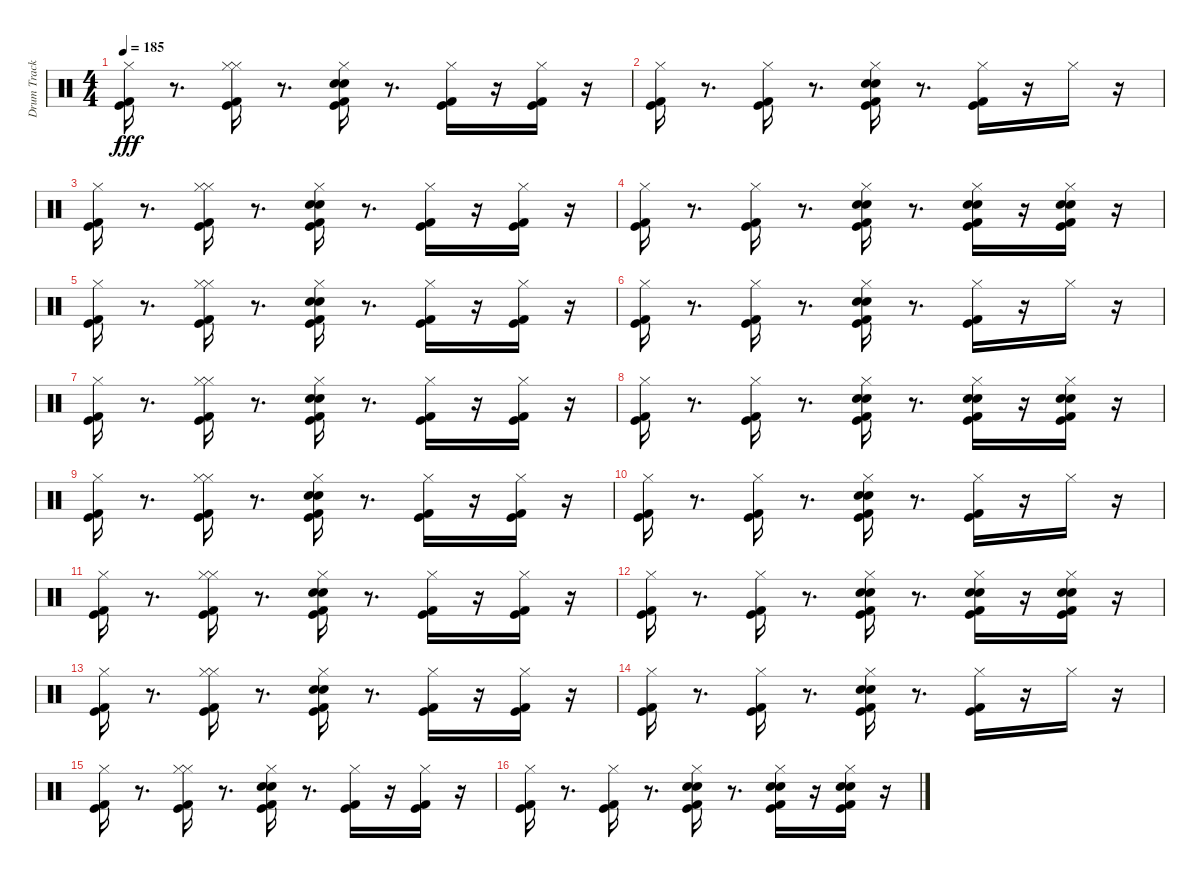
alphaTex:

\track ("Drum Track" "Drum Track") {instrument percussion}
\staff {score}
\articulation defaults
\ts (4 4)
\tempo 185
\clef neutral
\ks c
("Hi-Hat (closed)" "Kick (hit) 2" "Kick (hit)").16{dy fff} r.8{d} ("Hi-Hat (closed)" "Hi-Hat (closed)" "Kick (hit) 2" "Kick (hit)").16 r.8{d} ("Snare (hit) 2" "Electric Snare (hit)" "Kick (hit) 2" "Kick (hit)" "Hi-Hat (closed)").16 r.8{d} ("Kick (hit)" "Kick (hit) 2" "Hi-Hat (closed)").16 r.16 ("Kick (hit) 2" "Kick (hit)" "Hi-Hat (closed)").16 r.16 |
("Hi-Hat (closed)" "Kick (hit) 2" "Kick (hit)").16 r.8{d} ("Hi-Hat (closed)" "Kick (hit)" "Kick (hit) 2").16 r.8{d} ("Hi-Hat (closed)" "Snare (hit) 2" "Electric Snare (hit)" "Kick (hit) 2" "Kick (hit)").16 r.8{d} ("Hi-Hat (closed)" "Kick (hit)" "Kick (hit) 2").16 r.16 "Hi-Hat (closed)".16 r.16 |
("Kick (hit)" "Kick (hit) 2" "Hi-Hat (closed)").16 r.8{d} ("Hi-Hat (closed)" "Hi-Hat (closed)" "Kick (hit) 2" "Kick (hit)").16 r.8{d} ("Snare (hit) 2" "Electric Snare (hit)" "Kick (hit) 2" "Kick (hit)" "Hi-Hat (closed)").16 r.8{d} ("Kick (hit)" "Kick (hit) 2" "Hi-Hat (closed)").16 r.16 ("Kick (hit) 2" "Kick (hit)" "Hi-Hat (closed)").16 r.16 |
("Hi-Hat (closed)" "Kick (hit) 2" "Kick (hit)").16 r.8{d} ("Hi-Hat (closed)" "Kick (hit)" "Kick (hit) 2").16 r.8{d} ("Hi-Hat (closed)" "Snare (hit) 2" "Electric Snare (hit)" "Kick (hit) 2" "Kick (hit)").16 r.8{d} ("Hi-Hat (closed)" "Snare (hit) 2" "Electric Snare (hit)" "Kick (hit)" "Kick (hit) 2").16 r.16 ("Hi-Hat (closed)" "Electric Snare (hit)" "Snare (hit) 2" "Kick (hit) 2" "Kick (hit)").16 r.16 |
("Hi-Hat (closed)" "Kick (hit) 2" "Kick (hit)").16 r.8{d} ("Hi-Hat (closed)" "Hi-Hat (closed)" "Kick (hit) 2" "Kick (hit)").16 r.8{d} ("Snare (hit) 2" "Electric Snare (hit)" "Kick (hit) 2" "Kick (hit)" "Hi-Hat (closed)").16 r.8{d} ("Kick (hit)" "Kick (hit) 2" "Hi-Hat (closed)").16 r.16 ("Kick (hit) 2" "Kick (hit)" "Hi-Hat (closed)").16 r.16 |
("Hi-Hat (closed)" "Kick (hit) 2" "Kick (hit)").16 r.8{d} ("Hi-Hat (closed)" "Kick (hit)" "Kick (hit) 2").16 r.8{d} ("Hi-Hat (closed)" "Snare (hit) 2" "Electric Snare (hit)" "Kick (hit) 2" "Kick (hit)").16 r.8{d} ("Hi-Hat (closed)" "Kick (hit)" "Kick (hit) 2").16 r.16 "Hi-Hat (closed)".16 r.16 |
("Kick (hit)" "Kick (hit) 2" "Hi-Hat (closed)").16 r.8{d} ("Hi-Hat (closed)" "Hi-Hat (closed)" "Kick (hit) 2" "Kick (hit)").16 r.8{d} ("Snare (hit) 2" "Electric Snare (hit)" "Kick (hit) 2" "Kick (hit)" "Hi-Hat (closed)").16 r.8{d} ("Kick (hit)" "Kick (hit) 2" "Hi-Hat (closed)").16 r.16 ("Kick (hit) 2" "Kick (hit)" "Hi-Hat (closed)").16 r.16 |
("Hi-Hat (closed)" "Kick (hit) 2" "Kick (hit)").16 r.8{d} ("Hi-Hat (closed)" "Kick (hit)" "Kick (hit) 2").16 r.8{d} ("Hi-Hat (closed)" "Snare (hit) 2" "Electric Snare (hit)" "Kick (hit) 2" "Kick (hit)").16 r.8{d} ("Hi-Hat (closed)" "Snare (hit) 2" "Electric Snare (hit)" "Kick (hit)" "Kick (hit) 2").16 r.16 ("Hi-Hat (closed)" "Electric Snare (hit)" "Snare (hit) 2" "Kick (hit) 2" "Kick (hit)").16 r.16 |
("Hi-Hat (closed)" "Kick (hit) 2" "Kick (hit)").16 r.8{d} ("Hi-Hat (closed)" "Hi-Hat (closed)" "Kick (hit) 2" "Kick (hit)").16 r.8{d} ("Snare (hit) 2" "Electric Snare (hit)" "Kick (hit) 2" "Kick (hit)" "Hi-Hat (closed)").16 r.8{d} ("Kick (hit)" "Kick (hit) 2" "Hi-Hat (closed)").16 r.16 ("Kick (hit) 2" "Kick (hit)" "Hi-Hat (closed)").16 r.16 |
("Hi-Hat (closed)" "Kick (hit) 2" "Kick (hit)").16 r.8{d} ("Hi-Hat (closed)" "Kick (hit)" "Kick (hit) 2").16 r.8{d} ("Hi-Hat (closed)" "Snare (hit) 2" "Electric Snare (hit)" "Kick (hit) 2" "Kick (hit)").16 r.8{d} ("Hi-Hat (closed)" "Kick (hit)" "Kick (hit) 2").16 r.16 "Hi-Hat (closed)".16 r.16 |
("Kick (hit)" "Kick (hit) 2" "Hi-Hat (closed)").16 r.8{d} ("Hi-Hat (closed)" "Hi-Hat (closed)" "Kick (hit) 2" "Kick (hit)").16 r.8{d} ("Snare (hit) 2" "Electric Snare (hit)" "Kick (hit) 2" "Kick (hit)" "Hi-Hat (closed)").16 r.8{d} ("Kick (hit)" "Kick (hit) 2" "Hi-Hat (closed)").16 r.16 ("Kick (hit) 2" "Kick (hit)" "Hi-Hat (closed)").16 r.16 |
("Hi-Hat (closed)" "Kick (hit) 2" "Kick (hit)").16 r.8{d} ("Hi-Hat (closed)" "Kick (hit)" "Kick (hit) 2").16 r.8{d} ("Hi-Hat (closed)" "Snare (hit) 2" "Electric Snare (hit)" "Kick (hit) 2" "Kick (hit)").16 r.8{d} ("Hi-Hat (closed)" "Snare (hit) 2" "Electric Snare (hit)" "Kick (hit)" "Kick (hit) 2").16 r.16 ("Hi-Hat (closed)" "Electric Snare (hit)" "Snare (hit) 2" "Kick (hit) 2" "Kick (hit)").16 r.16 |
("Hi-Hat (closed)" "Kick (hit) 2" "Kick (hit)").16 r.8{d} ("Hi-Hat (closed)" "Hi-Hat (closed)" "Kick (hit) 2" "Kick (hit)").16 r.8{d} ("Snare (hit) 2" "Electric Snare (hit)" "Kick (hit) 2" "Kick (hit)" "Hi-Hat (closed)").16 r.8{d} ("Kick (hit)" "Kick (hit) 2" "Hi-Hat (closed)").16 r.16 ("Kick (hit) 2" "Kick (hit)" "Hi-Hat (closed)").16 r.16 |
("Hi-Hat (closed)" "Kick (hit) 2" "Kick (hit)").16 r.8{d} ("Hi-Hat (closed)" "Kick (hit)" "Kick (hit) 2").16 r.8{d} ("Hi-Hat (closed)" "Snare (hit) 2" "Electric Snare (hit)" "Kick (hit) 2" "Kick (hit)").16 r.8{d} ("Hi-Hat (closed)" "Kick (hit)" "Kick (hit) 2").16 r.16 "Hi-Hat (closed)".16 r.16 |
("Kick (hit)" "Kick (hit) 2" "Hi-Hat (closed)").16 r.8{d} ("Hi-Hat (closed)" "Hi-Hat (closed)" "Kick (hit) 2" "Kick (hit)").16 r.8{d} ("Snare (hit) 2" "Electric Snare (hit)" "Kick (hit) 2" "Kick (hit)" "Hi-Hat (closed)").16 r.8{d} ("Kick (hit)" "Kick (hit) 2" "Hi-Hat (closed)").16 r.16 ("Kick (hit) 2" "Kick (hit)" "Hi-Hat (closed)").16 r.16 |
("Hi-Hat (closed)" "Kick (hit) 2" "Kick (hit)").16 r.8{d} ("Hi-Hat (closed)" "Kick (hit)" "Kick (hit) 2").16 r.8{d} ("Hi-Hat (closed)" "Snare (hit) 2" "Electric Snare (hit)" "Kick (hit) 2" "Kick (hit)").16 r.8{d} ("Hi-Hat (closed)" "Snare (hit) 2" "Electric Snare (hit)" "Kick (hit)" "Kick (hit) 2").16 r.16 ("Hi-Hat (closed)" "Electric Snare (hit)" "Snare (hit) 2" "Kick (hit) 2" "Kick (hit)").16 r.16
